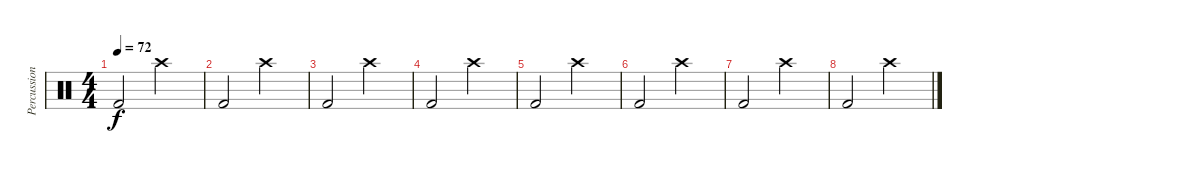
\track ("Percussion" "Percussion") {instrument percussion}
\staff {score}
\articulation defaults
\ts (4 4)
\tempo 72
\clef neutral
\ks c "Kick (hit) 2".2{dy f} "Crash high (hit)".2
|
"Kick (hit) 2".2 "Crash high (hit)".2 |
"Kick (hit) 2".2 "Crash high (hit)".2 |
"Kick (hit) 2".2 "Crash high (hit)".2 |
"Kick (hit) 2".2 "Crash high (hit)".2 |
"Kick (hit) 2".2 "Crash high (hit)".2 |
"Kick (hit) 2".2 "Crash high (hit)".2 |
"Kick (hit) 2".2 "Crash high (hit)".2
